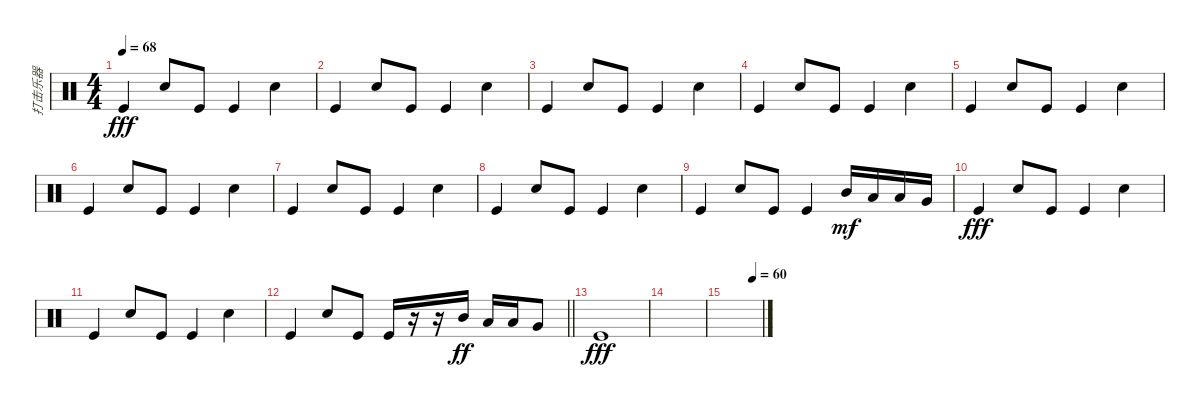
\track ("打击乐器" "打击乐器") {instrument percussion}
\staff {score}
\articulation defaults
\ts (4 4)
\tempo 68
\clef neutral
\ks c "Kick (hit)".4{dy fff} "Electric Snare (hit)".8 "Kick (hit)".8 "Kick (hit)".4 "Electric Snare (hit)".4
|
"Kick (hit)".4 "Electric Snare (hit)".8 "Kick (hit)".8 "Kick (hit)".4 "Electric Snare (hit)".4 |
"Kick (hit)".4 "Electric Snare (hit)".8 "Kick (hit)".8 "Kick (hit)".4 "Electric Snare (hit)".4 |
"Kick (hit)".4 "Electric Snare (hit)".8 "Kick (hit)".8 "Kick (hit)".4 "Electric Snare (hit)".4 |
"Kick (hit)".4 "Electric Snare (hit)".8 "Kick (hit)".8 "Kick (hit)".4 "Electric Snare (hit)".4 |
"Kick (hit)".4 "Electric Snare (hit)".8 "Kick (hit)".8 "Kick (hit)".4 "Electric Snare (hit)".4 |
"Kick (hit)".4 "Electric Snare (hit)".8 "Kick (hit)".8 "Kick (hit)".4 "Electric Snare (hit)".4 |
"Kick (hit)".4 "Electric Snare (hit)".8 "Kick (hit)".8 "Kick (hit)".4 "Electric Snare (hit)".4 |
"Kick (hit)".4 "Electric Snare (hit)".8 "Kick (hit)".8 "Kick (hit)".4 "Mid Tom (hit)".16{dy mf} "Low Tom (hit)".16 "Low Tom (hit)".16 "Very Low Tom (hit)".16 |
"Kick (hit)".4{dy fff} "Electric Snare (hit)".8 "Kick (hit)".8 "Kick (hit)".4 "Electric Snare (hit)".4 |
"Kick (hit)".4 "Electric Snare (hit)".8 "Kick (hit)".8 "Kick (hit)".4 "Electric Snare (hit)".4 |
\barLineRight lightlight "Kick (hit)".4 "Electric Snare (hit)".8 "Kick (hit)".8 "Kick (hit)".16
r.16 r.16 "Mid Tom (hit)".16{dy ff} "Low Tom (hit)".16 "Low Tom (hit)".16 "Very Low Tom (hit)".8 |
"Kick (hit)".1{dy fff} |
|
\tempo (60 0.75)
